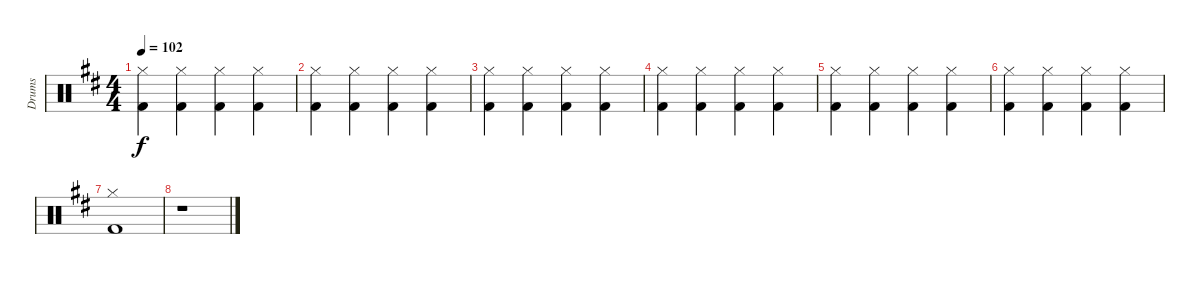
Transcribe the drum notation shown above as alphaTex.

\track ("Drums" "Drums") {instrument percussion}
\staff {score}
\articulation defaults
\ts (4 4)
\tempo 102
\clef neutral
\ks d
("Hi-Hat (closed)" "Kick (hit) 2").4{dy f} ("Hi-Hat (closed)" "Kick (hit) 2").4 ("Hi-Hat (closed)" "Kick (hit) 2").4 ("Hi-Hat (closed)" "Kick (hit) 2").4 |
("Hi-Hat (closed)" "Kick (hit) 2").4 ("Hi-Hat (closed)" "Kick (hit) 2").4 ("Hi-Hat (closed)" "Kick (hit) 2").4 ("Hi-Hat (closed)" "Kick (hit) 2").4 |
("Hi-Hat (closed)" "Kick (hit) 2").4 ("Hi-Hat (closed)" "Kick (hit) 2").4 ("Hi-Hat (closed)" "Kick (hit) 2").4 ("Hi-Hat (closed)" "Kick (hit) 2").4 |
("Hi-Hat (closed)" "Kick (hit) 2").4 ("Hi-Hat (closed)" "Kick (hit) 2").4 ("Hi-Hat (closed)" "Kick (hit) 2").4 ("Hi-Hat (closed)" "Kick (hit) 2").4 |
("Hi-Hat (closed)" "Kick (hit) 2").4 ("Hi-Hat (closed)" "Kick (hit) 2").4 ("Hi-Hat (closed)" "Kick (hit) 2").4 ("Hi-Hat (closed)" "Kick (hit) 2").4 |
("Hi-Hat (closed)" "Kick (hit) 2").4 ("Hi-Hat (closed)" "Kick (hit) 2").4 ("Hi-Hat (closed)" "Kick (hit) 2").4 ("Hi-Hat (closed)" "Kick (hit) 2").4 |
("Hi-Hat (closed)" "Kick (hit) 2").1 |
r.1
